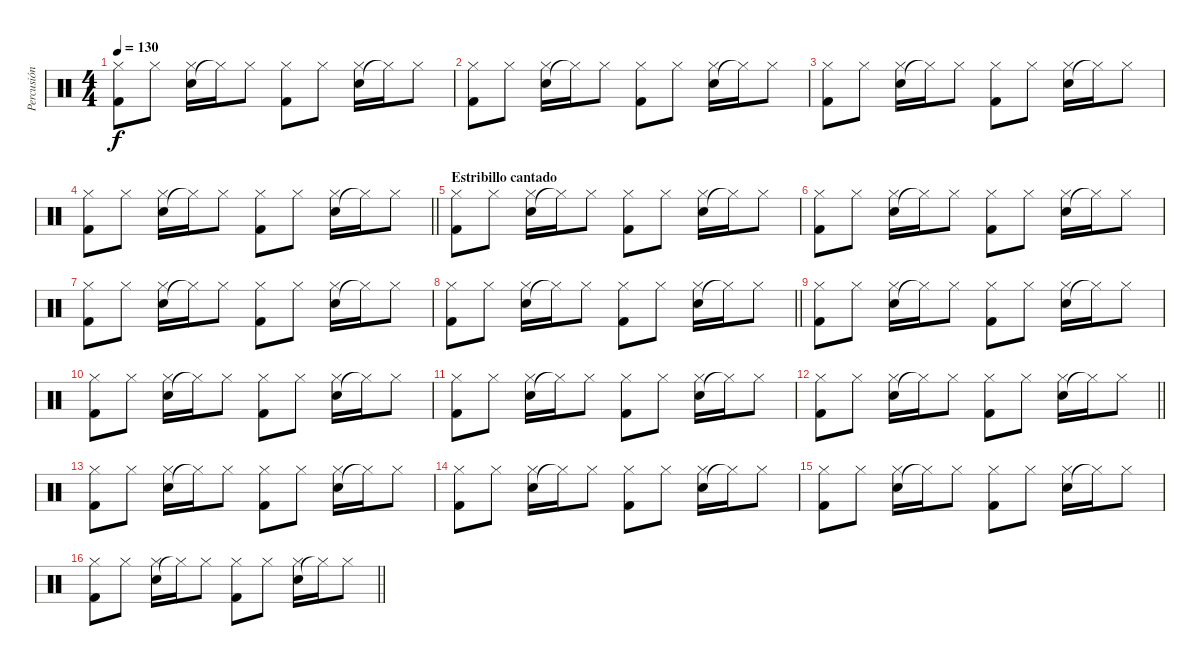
\track ("Percusión" "Percusión") {instrument percussion}
\staff {score}
\articulation defaults
\ts (4 4)
\tempo 130
\clef neutral
\ks c
("Kick (hit) 2" "Hi-Hat (closed)").8{dy f} "Hi-Hat (closed)".8 ("Snare (hit) 2" "Hi-Hat (closed)").16 "Hi-Hat (closed)"{t}.16 "Hi-Hat (closed)".8 ("Kick (hit) 2" "Hi-Hat (closed)").8 "Hi-Hat (closed)".8 ("Snare (hit) 2" "Hi-Hat (closed)").16 "Hi-Hat (closed)"{t}.16 "Hi-Hat (closed)".8 |
("Kick (hit) 2" "Hi-Hat (closed)").8 "Hi-Hat (closed)".8 ("Snare (hit) 2" "Hi-Hat (closed)").16 "Hi-Hat (closed)"{t}.16 "Hi-Hat (closed)".8 ("Kick (hit) 2" "Hi-Hat (closed)").8 "Hi-Hat (closed)".8 ("Snare (hit) 2" "Hi-Hat (closed)").16 "Hi-Hat (closed)"{t}.16 "Hi-Hat (closed)".8 |
("Kick (hit) 2" "Hi-Hat (closed)").8 "Hi-Hat (closed)".8 ("Snare (hit) 2" "Hi-Hat (closed)").16 "Hi-Hat (closed)"{t}.16 "Hi-Hat (closed)".8 ("Kick (hit) 2" "Hi-Hat (closed)").8 "Hi-Hat (closed)".8 ("Snare (hit) 2" "Hi-Hat (closed)").16 "Hi-Hat (closed)"{t}.16 "Hi-Hat (closed)".8 |
\barLineRight lightlight
("Kick (hit) 2" "Hi-Hat (closed)").8 "Hi-Hat (closed)".8 ("Snare (hit) 2" "Hi-Hat (closed)").16 "Hi-Hat (closed)"{t}.16 "Hi-Hat (closed)".8 ("Kick (hit) 2" "Hi-Hat (closed)").8 "Hi-Hat (closed)".8 ("Snare (hit) 2" "Hi-Hat (closed)").16 "Hi-Hat (closed)"{t}.16 "Hi-Hat (closed)".8 |
\section ("" "Estribillo cantado")
("Kick (hit) 2" "Hi-Hat (closed)").8 "Hi-Hat (closed)".8 ("Snare (hit) 2" "Hi-Hat (closed)").16 "Hi-Hat (closed)"{t}.16 "Hi-Hat (closed)".8 ("Kick (hit) 2" "Hi-Hat (closed)").8 "Hi-Hat (closed)".8 ("Snare (hit) 2" "Hi-Hat (closed)").16 "Hi-Hat (closed)"{t}.16 "Hi-Hat (closed)".8 |
("Kick (hit) 2" "Hi-Hat (closed)").8 "Hi-Hat (closed)".8 ("Snare (hit) 2" "Hi-Hat (closed)").16 "Hi-Hat (closed)"{t}.16 "Hi-Hat (closed)".8 ("Kick (hit) 2" "Hi-Hat (closed)").8 "Hi-Hat (closed)".8 ("Snare (hit) 2" "Hi-Hat (closed)").16 "Hi-Hat (closed)"{t}.16 "Hi-Hat (closed)".8 |
("Kick (hit) 2" "Hi-Hat (closed)").8 "Hi-Hat (closed)".8 ("Snare (hit) 2" "Hi-Hat (closed)").16 "Hi-Hat (closed)"{t}.16 "Hi-Hat (closed)".8 ("Kick (hit) 2" "Hi-Hat (closed)").8 "Hi-Hat (closed)".8 ("Snare (hit) 2" "Hi-Hat (closed)").16 "Hi-Hat (closed)"{t}.16 "Hi-Hat (closed)".8 |
\barLineRight lightlight
("Kick (hit) 2" "Hi-Hat (closed)").8 "Hi-Hat (closed)".8 ("Snare (hit) 2" "Hi-Hat (closed)").16 "Hi-Hat (closed)"{t}.16 "Hi-Hat (closed)".8 ("Kick (hit) 2" "Hi-Hat (closed)").8 "Hi-Hat (closed)".8 ("Snare (hit) 2" "Hi-Hat (closed)").16 "Hi-Hat (closed)"{t}.16 "Hi-Hat (closed)".8 |
("Kick (hit) 2" "Hi-Hat (closed)").8 "Hi-Hat (closed)".8 ("Snare (hit) 2" "Hi-Hat (closed)").16 "Hi-Hat (closed)"{t}.16 "Hi-Hat (closed)".8 ("Kick (hit) 2" "Hi-Hat (closed)").8 "Hi-Hat (closed)".8 ("Snare (hit) 2" "Hi-Hat (closed)").16 "Hi-Hat (closed)"{t}.16 "Hi-Hat (closed)".8 |
("Kick (hit) 2" "Hi-Hat (closed)").8 "Hi-Hat (closed)".8 ("Snare (hit) 2" "Hi-Hat (closed)").16 "Hi-Hat (closed)"{t}.16 "Hi-Hat (closed)".8 ("Kick (hit) 2" "Hi-Hat (closed)").8 "Hi-Hat (closed)".8 ("Snare (hit) 2" "Hi-Hat (closed)").16 "Hi-Hat (closed)"{t}.16 "Hi-Hat (closed)".8 |
("Kick (hit) 2" "Hi-Hat (closed)").8 "Hi-Hat (closed)".8 ("Snare (hit) 2" "Hi-Hat (closed)").16 "Hi-Hat (closed)"{t}.16 "Hi-Hat (closed)".8 ("Kick (hit) 2" "Hi-Hat (closed)").8 "Hi-Hat (closed)".8 ("Snare (hit) 2" "Hi-Hat (closed)").16 "Hi-Hat (closed)"{t}.16 "Hi-Hat (closed)".8 |
\barLineRight lightlight
("Kick (hit) 2" "Hi-Hat (closed)").8 "Hi-Hat (closed)".8 ("Snare (hit) 2" "Hi-Hat (closed)").16 "Hi-Hat (closed)"{t}.16 "Hi-Hat (closed)".8 ("Kick (hit) 2" "Hi-Hat (closed)").8 "Hi-Hat (closed)".8 ("Snare (hit) 2" "Hi-Hat (closed)").16 "Hi-Hat (closed)"{t}.16 "Hi-Hat (closed)".8 |
("Kick (hit) 2" "Hi-Hat (closed)").8 "Hi-Hat (closed)".8 ("Snare (hit) 2" "Hi-Hat (closed)").16 "Hi-Hat (closed)"{t}.16 "Hi-Hat (closed)".8 ("Kick (hit) 2" "Hi-Hat (closed)").8 "Hi-Hat (closed)".8 ("Snare (hit) 2" "Hi-Hat (closed)").16 "Hi-Hat (closed)"{t}.16 "Hi-Hat (closed)".8 |
("Kick (hit) 2" "Hi-Hat (closed)").8 "Hi-Hat (closed)".8 ("Snare (hit) 2" "Hi-Hat (closed)").16 "Hi-Hat (closed)"{t}.16 "Hi-Hat (closed)".8 ("Kick (hit) 2" "Hi-Hat (closed)").8 "Hi-Hat (closed)".8 ("Snare (hit) 2" "Hi-Hat (closed)").16 "Hi-Hat (closed)"{t}.16 "Hi-Hat (closed)".8 |
("Kick (hit) 2" "Hi-Hat (closed)").8 "Hi-Hat (closed)".8 ("Snare (hit) 2" "Hi-Hat (closed)").16 "Hi-Hat (closed)"{t}.16 "Hi-Hat (closed)".8 ("Kick (hit) 2" "Hi-Hat (closed)").8 "Hi-Hat (closed)".8 ("Snare (hit) 2" "Hi-Hat (closed)").16 "Hi-Hat (closed)"{t}.16 "Hi-Hat (closed)".8 |
\barLineRight lightlight
("Kick (hit) 2" "Hi-Hat (closed)").8 "Hi-Hat (closed)".8 ("Snare (hit) 2" "Hi-Hat (closed)").16 "Hi-Hat (closed)"{t}.16 "Hi-Hat (closed)".8 ("Kick (hit) 2" "Hi-Hat (closed)").8 "Hi-Hat (closed)".8 ("Snare (hit) 2" "Hi-Hat (closed)").16 "Hi-Hat (closed)"{t}.16 "Hi-Hat (closed)".8
